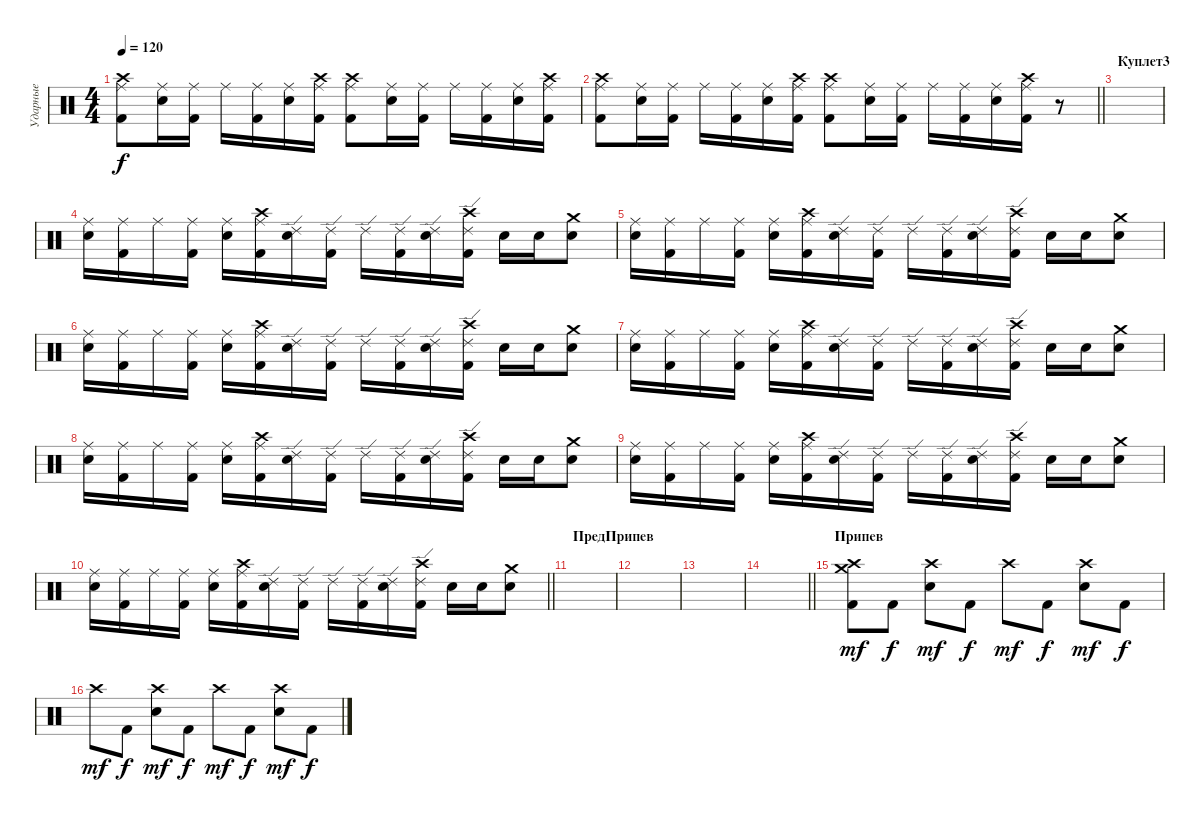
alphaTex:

\track ("Ударные" "Ударные") {instrument percussion}
\staff {score}
\articulation defaults
\ts (4 4)
\tempo 120
\clef neutral
\ks c
("Crash high (hit)" "Ride (middle)" "Kick (hit) 2").8{dy f} ("Ride (middle)" "Electric Snare (hit)").16 ("Ride (middle)" "Kick (hit) 2").16 "Ride (middle)".16 ("Ride (middle)" "Kick (hit) 2").16 ("Ride (middle)" "Electric Snare (hit)").16 ("Crash high (hit)" "Ride (middle)" "Kick (hit) 2").16 ("Crash high (hit)" "Ride (middle)" "Kick (hit) 2").8 ("Ride (middle)" "Electric Snare (hit)").16 ("Ride (middle)" "Kick (hit) 2").16 "Ride (middle)".16 ("Ride (middle)" "Kick (hit) 2").16 ("Ride (middle)" "Electric Snare (hit)").16 ("Crash high (hit)" "Ride (middle)" "Kick (hit) 2").16 |
\barLineRight lightlight
("Crash high (hit)" "Ride (middle)" "Kick (hit) 2").8 ("Ride (middle)" "Electric Snare (hit)").16 ("Ride (middle)" "Kick (hit) 2").16 "Ride (middle)".16 ("Ride (middle)" "Kick (hit) 2").16 ("Ride (middle)" "Electric Snare (hit)").16 ("Crash high (hit)" "Ride (middle)" "Kick (hit) 2").16 ("Crash high (hit)" "Ride (middle)" "Kick (hit) 2").8 ("Ride (middle)" "Electric Snare (hit)").16 ("Ride (middle)" "Kick (hit) 2").16 "Ride (middle)".16 ("Ride (middle)" "Kick (hit) 2").16 ("Ride (middle)" "Electric Snare (hit)").16 ("Crash high (hit)" "Ride (middle)" "Kick (hit) 2").16 r.8 |
\section ("" "Куплет3")
|
("Ride (middle)" "Electric Snare (hit)").16 ("Ride (middle)" "Kick (hit) 2").16 "Ride (middle)".16 ("Ride (middle)" "Kick (hit) 2").16 ("Ride (middle)" "Electric Snare (hit)").16 ("Crash high (hit)" "Ride (middle)" "Kick (hit) 2").16 ("Ride (edge) 2" "Electric Snare (hit)").16 ("Ride (edge) 2" "Kick (hit) 2").16 "Ride (edge) 2".16 ("Ride (edge) 2" "Kick (hit) 2").16 ("Ride (edge) 2" "Electric Snare (hit)").16 ("Crash high (hit)" "Ride (edge) 2" "Kick (hit) 2").16 "Snare (hit) 2".16 "Electric Snare (hit)".16 ("Electric Snare (hit)" "Crash medium (hit)").8 |
("Ride (middle)" "Electric Snare (hit)").16 ("Ride (middle)" "Kick (hit) 2").16 "Ride (middle)".16 ("Ride (middle)" "Kick (hit) 2").16 ("Ride (middle)" "Electric Snare (hit)").16 ("Crash high (hit)" "Ride (middle)" "Kick (hit) 2").16 ("Ride (edge) 2" "Electric Snare (hit)").16 ("Ride (edge) 2" "Kick (hit) 2").16 "Ride (edge) 2".16 ("Ride (edge) 2" "Kick (hit) 2").16 ("Ride (edge) 2" "Electric Snare (hit)").16 ("Crash high (hit)" "Ride (edge) 2" "Kick (hit) 2").16 "Snare (hit) 2".16 "Electric Snare (hit)".16 ("Electric Snare (hit)" "Crash medium (hit)").8 |
("Ride (middle)" "Electric Snare (hit)").16 ("Ride (middle)" "Kick (hit) 2").16 "Ride (middle)".16 ("Ride (middle)" "Kick (hit) 2").16 ("Ride (middle)" "Electric Snare (hit)").16 ("Crash high (hit)" "Ride (middle)" "Kick (hit) 2").16 ("Ride (edge) 2" "Electric Snare (hit)").16 ("Ride (edge) 2" "Kick (hit) 2").16 "Ride (edge) 2".16 ("Ride (edge) 2" "Kick (hit) 2").16 ("Ride (edge) 2" "Electric Snare (hit)").16 ("Crash high (hit)" "Ride (edge) 2" "Kick (hit) 2").16 "Snare (hit) 2".16 "Electric Snare (hit)".16 ("Electric Snare (hit)" "Crash medium (hit)").8 |
("Ride (middle)" "Electric Snare (hit)").16 ("Ride (middle)" "Kick (hit) 2").16 "Ride (middle)".16 ("Ride (middle)" "Kick (hit) 2").16 ("Ride (middle)" "Electric Snare (hit)").16 ("Crash high (hit)" "Ride (middle)" "Kick (hit) 2").16 ("Ride (edge) 2" "Electric Snare (hit)").16 ("Ride (edge) 2" "Kick (hit) 2").16 "Ride (edge) 2".16 ("Ride (edge) 2" "Kick (hit) 2").16 ("Ride (edge) 2" "Electric Snare (hit)").16 ("Crash high (hit)" "Ride (edge) 2" "Kick (hit) 2").16 "Snare (hit) 2".16 "Electric Snare (hit)".16 ("Electric Snare (hit)" "Crash medium (hit)").8 |
("Ride (middle)" "Electric Snare (hit)").16 ("Ride (middle)" "Kick (hit) 2").16 "Ride (middle)".16 ("Ride (middle)" "Kick (hit) 2").16 ("Ride (middle)" "Electric Snare (hit)").16 ("Crash high (hit)" "Ride (middle)" "Kick (hit) 2").16 ("Ride (edge) 2" "Electric Snare (hit)").16 ("Ride (edge) 2" "Kick (hit) 2").16 "Ride (edge) 2".16 ("Ride (edge) 2" "Kick (hit) 2").16 ("Ride (edge) 2" "Electric Snare (hit)").16 ("Crash high (hit)" "Ride (edge) 2" "Kick (hit) 2").16 "Snare (hit) 2".16 "Electric Snare (hit)".16 ("Electric Snare (hit)" "Crash medium (hit)").8 |
("Ride (middle)" "Electric Snare (hit)").16 ("Ride (middle)" "Kick (hit) 2").16 "Ride (middle)".16 ("Ride (middle)" "Kick (hit) 2").16 ("Ride (middle)" "Electric Snare (hit)").16 ("Crash high (hit)" "Ride (middle)" "Kick (hit) 2").16 ("Ride (edge) 2" "Electric Snare (hit)").16 ("Ride (edge) 2" "Kick (hit) 2").16 "Ride (edge) 2".16 ("Ride (edge) 2" "Kick (hit) 2").16 ("Ride (edge) 2" "Electric Snare (hit)").16 ("Crash high (hit)" "Ride (edge) 2" "Kick (hit) 2").16 "Snare (hit) 2".16 "Electric Snare (hit)".16 ("Electric Snare (hit)" "Crash medium (hit)").8 |
\barLineRight lightlight
("Ride (middle)" "Electric Snare (hit)").16 ("Ride (middle)" "Kick (hit) 2").16 "Ride (middle)".16 ("Ride (middle)" "Kick (hit) 2").16 ("Ride (middle)" "Electric Snare (hit)").16 ("Crash high (hit)" "Ride (middle)" "Kick (hit) 2").16 ("Ride (edge) 2" "Electric Snare (hit)").16 ("Ride (edge) 2" "Kick (hit) 2").16 "Ride (edge) 2".16 ("Ride (edge) 2" "Kick (hit) 2").16 ("Ride (edge) 2" "Electric Snare (hit)").16 ("Crash high (hit)" "Ride (edge) 2" "Kick (hit) 2").16 "Snare (hit) 2".16 "Electric Snare (hit)".16 ("Electric Snare (hit)" "Crash medium (hit)").8 |
\section ("" "ПредПрипев")
|
|
|
\barLineRight lightlight
|
\section ("" "Припев")
("Crash medium (hit)" "Crash high (hit)" "Kick (hit) 2").8{dy mf} "Kick (hit) 2".8{dy f} ("Crash high (hit)" "Electric Snare (hit)").8{dy mf} "Kick (hit) 2".8{dy f} "Crash high (hit)".8{dy mf} "Kick (hit) 2".8{dy f} ("Crash high (hit)" "Electric Snare (hit)").8{dy mf} "Kick (hit) 2".8{dy f} |
"Crash high (hit)".8{dy mf} "Kick (hit) 2".8{dy f} ("Crash high (hit)" "Electric Snare (hit)").8{dy mf} "Kick (hit) 2".8{dy f} "Crash high (hit)".8{dy mf} "Kick (hit) 2".8{dy f} ("Crash high (hit)" "Electric Snare (hit)").8{dy mf} "Kick (hit) 2".8{dy f}
